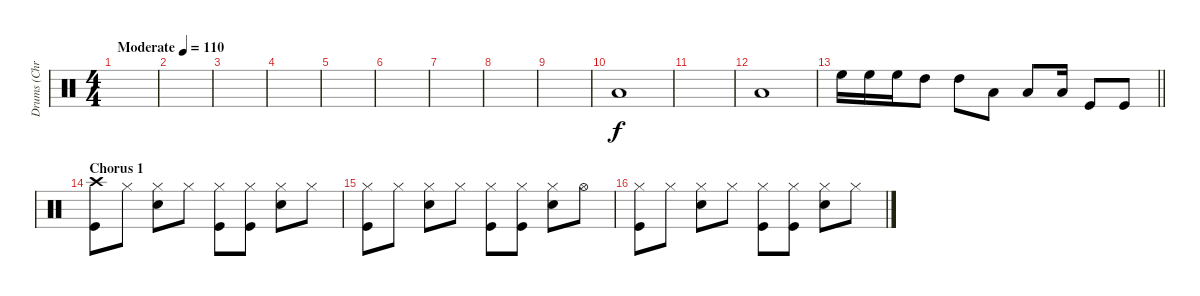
\track ("Drums (Chris Frantz)" "Drums (Chr") {instrument percussion}
\staff {score}
\articulation defaults
\ts (4 4)
\tempo (110 "Moderate")
\clef neutral
\ks c
|
|
|
|
|
|
|
|
|
"Low Floor Tom (hit)".1 |
|
"Low Floor Tom (hit)".1 |
\barLineRight lightlight "High Floor Tom (hit)".16 "High Floor Tom (hit)".16 "High Floor Tom (hit)".16 "High Tom (hit)".8 "High Tom (hit)".8 "Low Floor Tom (hit)".8 "Low Floor Tom (hit)".8 "Low Floor Tom (hit)".16 "Kick (hit)".8 "Kick (hit)".8
|
\section ("" "Chorus 1")
("Crash high (hit)" "Kick (hit)").8 "Hi-Hat (closed)".8 ("Hi-Hat (closed)" "Snare (hit) 2").8 "Hi-Hat (closed)".8 ("Hi-Hat (closed)" "Kick (hit)").8 ("Hi-Hat (closed)" "Kick (hit)").8 ("Hi-Hat (closed)" "Snare (hit) 2").8 "Hi-Hat (closed)".8 |
("Hi-Hat (closed)" "Kick (hit)").8 "Hi-Hat (closed)".8 ("Hi-Hat (closed)" "Snare (hit) 2").8 "Hi-Hat (closed)".8 ("Hi-Hat (closed)" "Kick (hit)").8 ("Hi-Hat (closed)" "Kick (hit)").8 ("Hi-Hat (closed)" "Snare (hit) 2").8 "Hi-Hat (open)".8 |
("Hi-Hat (closed)" "Kick (hit)").8 "Hi-Hat (closed)".8 ("Hi-Hat (closed)" "Snare (hit) 2").8 "Hi-Hat (closed)".8 ("Hi-Hat (closed)" "Kick (hit)").8 ("Hi-Hat (closed)" "Kick (hit)").8 ("Hi-Hat (closed)" "Snare (hit) 2").8 "Hi-Hat (closed)".8
